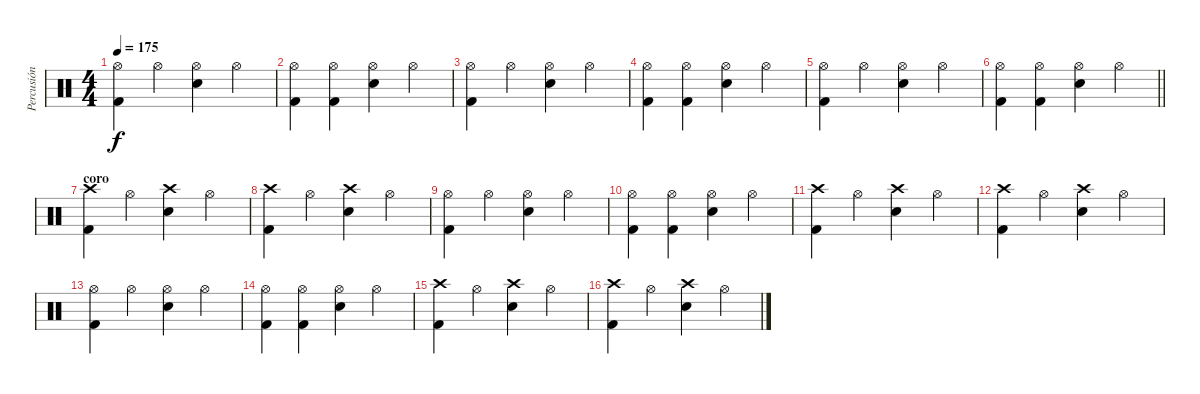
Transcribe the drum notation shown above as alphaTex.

\track ("Percusión" "Percusión") {instrument percussion}
\staff {score}
\articulation defaults
\ts (4 4)
\tempo 175
\clef neutral
\ks c
("Hi-Hat (open)" "Kick (hit) 2").4{dy f} "Hi-Hat (open)".4 ("Hi-Hat (open)" "Snare (hit) 2").4 "Hi-Hat (open)".4 |
("Hi-Hat (open)" "Kick (hit) 2").4 ("Hi-Hat (open)" "Kick (hit) 2").4 ("Hi-Hat (open)" "Snare (hit) 2").4 "Hi-Hat (open)".4 |
("Hi-Hat (open)" "Kick (hit) 2").4 "Hi-Hat (open)".4 ("Hi-Hat (open)" "Snare (hit) 2").4 "Hi-Hat (open)".4 |
("Hi-Hat (open)" "Kick (hit) 2").4 ("Hi-Hat (open)" "Kick (hit) 2").4 ("Hi-Hat (open)" "Snare (hit) 2").4 "Hi-Hat (open)".4 |
("Hi-Hat (open)" "Kick (hit) 2").4 "Hi-Hat (open)".4 ("Hi-Hat (open)" "Snare (hit) 2").4 "Hi-Hat (open)".4 |
\barLineRight lightlight
("Hi-Hat (open)" "Kick (hit) 2").4 ("Hi-Hat (open)" "Kick (hit) 2").4 ("Hi-Hat (open)" "Snare (hit) 2").4 "Hi-Hat (open)".4 |
\section ("" "coro")
("Crash high (hit)" "Kick (hit) 2").4 "Hi-Hat (open)".4 ("Crash high (hit)" "Snare (hit) 2").4 "Hi-Hat (open)".4 |
("Crash high (hit)" "Kick (hit) 2").4 "Hi-Hat (open)".4 ("Crash high (hit)" "Snare (hit) 2").4 "Hi-Hat (open)".4 |
("Hi-Hat (open)" "Kick (hit) 2").4 "Hi-Hat (open)".4 ("Hi-Hat (open)" "Snare (hit) 2").4 "Hi-Hat (open)".4 |
("Hi-Hat (open)" "Kick (hit) 2").4 ("Hi-Hat (open)" "Kick (hit) 2").4 ("Hi-Hat (open)" "Snare (hit) 2").4 "Hi-Hat (open)".4 |
("Crash high (hit)" "Kick (hit) 2").4 "Hi-Hat (open)".4 ("Crash high (hit)" "Snare (hit) 2").4 "Hi-Hat (open)".4 |
("Crash high (hit)" "Kick (hit) 2").4 "Hi-Hat (open)".4 ("Crash high (hit)" "Snare (hit) 2").4 "Hi-Hat (open)".4 |
("Hi-Hat (open)" "Kick (hit) 2").4 "Hi-Hat (open)".4 ("Hi-Hat (open)" "Snare (hit) 2").4 "Hi-Hat (open)".4 |
("Hi-Hat (open)" "Kick (hit) 2").4 ("Hi-Hat (open)" "Kick (hit) 2").4 ("Hi-Hat (open)" "Snare (hit) 2").4 "Hi-Hat (open)".4 |
("Crash high (hit)" "Kick (hit) 2").4 "Hi-Hat (open)".4 ("Crash high (hit)" "Snare (hit) 2").4 "Hi-Hat (open)".4 |
("Crash high (hit)" "Kick (hit) 2").4 "Hi-Hat (open)".4 ("Crash high (hit)" "Snare (hit) 2").4 "Hi-Hat (open)".4
